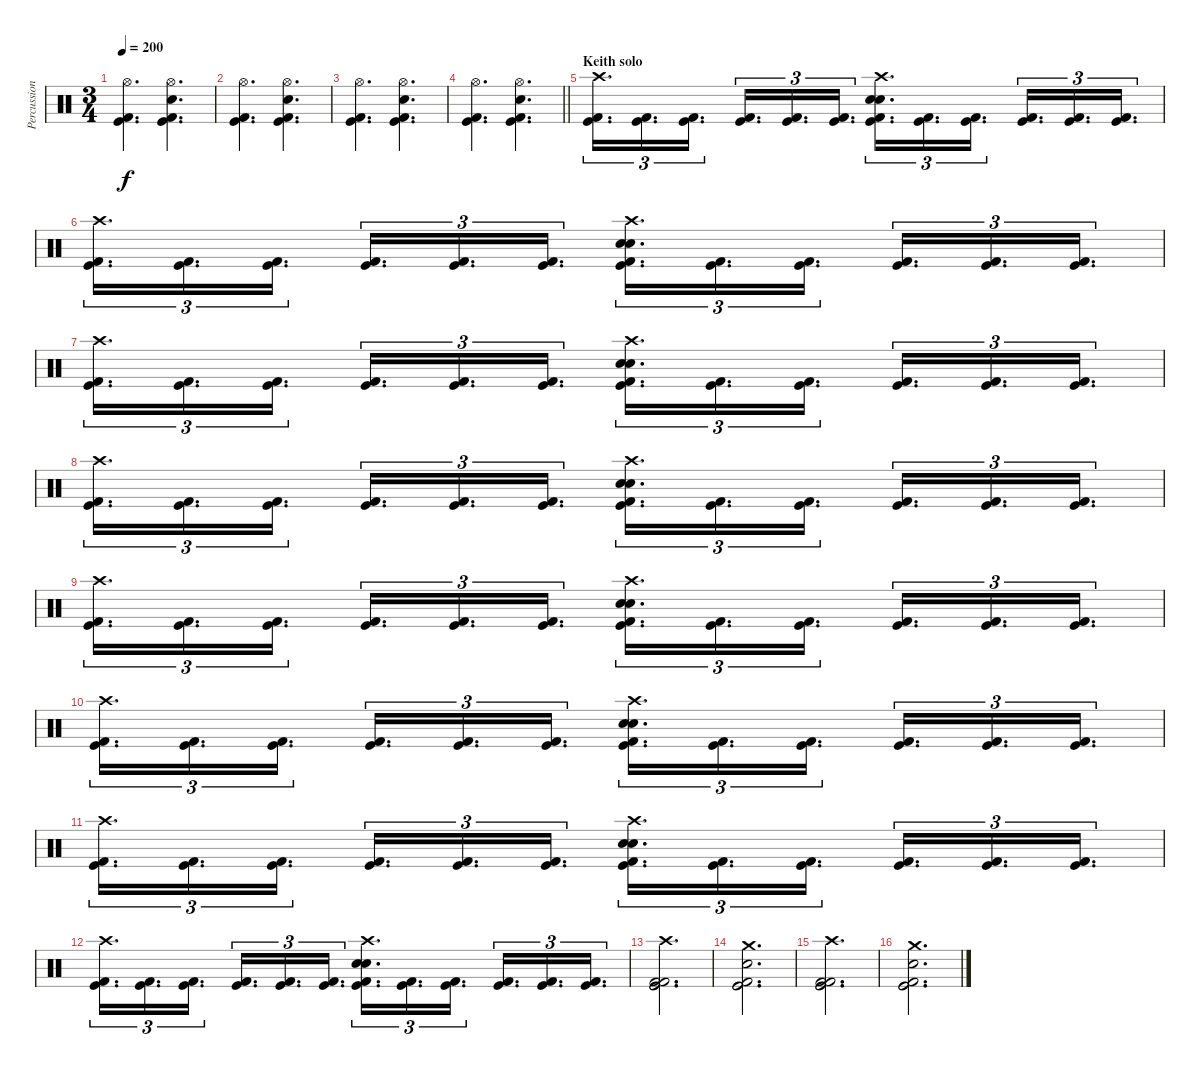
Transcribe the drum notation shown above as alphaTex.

\track ("Percussion" "Percussion") {instrument percussion}
\staff {score}
\articulation defaults
\ts (3 4)
\tempo 200
\clef neutral
\ks c
("Hi-Hat (open)" "Kick (hit) 2" "Kick (hit)").4{d dy f} ("Hi-Hat (open)" "Electric Snare (hit)" "Kick (hit) 2" "Kick (hit)").4{d} |
("Hi-Hat (open)" "Kick (hit) 2" "Kick (hit)").4{d} ("Hi-Hat (open)" "Electric Snare (hit)" "Kick (hit) 2" "Kick (hit)").4{d} |
("Hi-Hat (open)" "Kick (hit) 2" "Kick (hit)").4{d} ("Hi-Hat (open)" "Electric Snare (hit)" "Kick (hit) 2" "Kick (hit)").4{d} |
\barLineRight lightlight
("Hi-Hat (open)" "Kick (hit) 2" "Kick (hit)").4{d} ("Hi-Hat (open)" "Electric Snare (hit)" "Kick (hit) 2" "Kick (hit)").4{d} |
\section ("" "Keith solo")
("Crash high (hit)" "Kick (hit) 2" "Kick (hit)").16{d tu (3 2)} ("Kick (hit) 2" "Kick (hit)").16{d tu (3 2)} ("Kick (hit) 2" "Kick (hit)").16{d tu (3 2)} ("Kick (hit) 2" "Kick (hit)").16{d tu (3 2)} ("Kick (hit) 2" "Kick (hit)").16{d tu (3 2)} ("Kick (hit) 2" "Kick (hit)").16{d tu (3 2)} ("Crash high (hit)" "Electric Snare (hit)" "Electric Snare (hit)" "Kick (hit) 2" "Kick (hit)").16{d tu (3 2)} ("Kick (hit) 2" "Kick (hit)").16{d tu (3 2)} ("Kick (hit) 2" "Kick (hit)").16{d tu (3 2)} ("Kick (hit) 2" "Kick (hit)").16{d tu (3 2)} ("Kick (hit) 2" "Kick (hit)").16{d tu (3 2)} ("Kick (hit) 2" "Kick (hit)").16{d tu (3 2)} |
("Crash high (hit)" "Kick (hit) 2" "Kick (hit)").16{d tu (3 2)} ("Kick (hit) 2" "Kick (hit)").16{d tu (3 2)} ("Kick (hit) 2" "Kick (hit)").16{d tu (3 2)} ("Kick (hit) 2" "Kick (hit)").16{d tu (3 2)} ("Kick (hit) 2" "Kick (hit)").16{d tu (3 2)} ("Kick (hit) 2" "Kick (hit)").16{d tu (3 2)} ("Crash high (hit)" "Electric Snare (hit)" "Electric Snare (hit)" "Kick (hit) 2" "Kick (hit)").16{d tu (3 2)} ("Kick (hit) 2" "Kick (hit)").16{d tu (3 2)} ("Kick (hit) 2" "Kick (hit)").16{d tu (3 2)} ("Kick (hit) 2" "Kick (hit)").16{d tu (3 2)} ("Kick (hit) 2" "Kick (hit)").16{d tu (3 2)} ("Kick (hit) 2" "Kick (hit)").16{d tu (3 2)} |
("Crash high (hit)" "Kick (hit) 2" "Kick (hit)").16{d tu (3 2)} ("Kick (hit) 2" "Kick (hit)").16{d tu (3 2)} ("Kick (hit) 2" "Kick (hit)").16{d tu (3 2)} ("Kick (hit) 2" "Kick (hit)").16{d tu (3 2)} ("Kick (hit) 2" "Kick (hit)").16{d tu (3 2)} ("Kick (hit) 2" "Kick (hit)").16{d tu (3 2)} ("Crash high (hit)" "Electric Snare (hit)" "Electric Snare (hit)" "Kick (hit) 2" "Kick (hit)").16{d tu (3 2)} ("Kick (hit) 2" "Kick (hit)").16{d tu (3 2)} ("Kick (hit) 2" "Kick (hit)").16{d tu (3 2)} ("Kick (hit) 2" "Kick (hit)").16{d tu (3 2)} ("Kick (hit) 2" "Kick (hit)").16{d tu (3 2)} ("Kick (hit) 2" "Kick (hit)").16{d tu (3 2)} |
("Crash high (hit)" "Kick (hit) 2" "Kick (hit)").16{d tu (3 2)} ("Kick (hit) 2" "Kick (hit)").16{d tu (3 2)} ("Kick (hit) 2" "Kick (hit)").16{d tu (3 2)} ("Kick (hit) 2" "Kick (hit)").16{d tu (3 2)} ("Kick (hit) 2" "Kick (hit)").16{d tu (3 2)} ("Kick (hit) 2" "Kick (hit)").16{d tu (3 2)} ("Crash high (hit)" "Electric Snare (hit)" "Electric Snare (hit)" "Kick (hit) 2" "Kick (hit)").16{d tu (3 2)} ("Kick (hit) 2" "Kick (hit)").16{d tu (3 2)} ("Kick (hit) 2" "Kick (hit)").16{d tu (3 2)} ("Kick (hit) 2" "Kick (hit)").16{d tu (3 2)} ("Kick (hit) 2" "Kick (hit)").16{d tu (3 2)} ("Kick (hit) 2" "Kick (hit)").16{d tu (3 2)} |
("Crash high (hit)" "Kick (hit) 2" "Kick (hit)").16{d tu (3 2)} ("Kick (hit) 2" "Kick (hit)").16{d tu (3 2)} ("Kick (hit) 2" "Kick (hit)").16{d tu (3 2)} ("Kick (hit) 2" "Kick (hit)").16{d tu (3 2)} ("Kick (hit) 2" "Kick (hit)").16{d tu (3 2)} ("Kick (hit) 2" "Kick (hit)").16{d tu (3 2)} ("Crash high (hit)" "Electric Snare (hit)" "Electric Snare (hit)" "Kick (hit) 2" "Kick (hit)").16{d tu (3 2)} ("Kick (hit) 2" "Kick (hit)").16{d tu (3 2)} ("Kick (hit) 2" "Kick (hit)").16{d tu (3 2)} ("Kick (hit) 2" "Kick (hit)").16{d tu (3 2)} ("Kick (hit) 2" "Kick (hit)").16{d tu (3 2)} ("Kick (hit) 2" "Kick (hit)").16{d tu (3 2)} |
("Crash high (hit)" "Kick (hit) 2" "Kick (hit)").16{d tu (3 2)} ("Kick (hit) 2" "Kick (hit)").16{d tu (3 2)} ("Kick (hit) 2" "Kick (hit)").16{d tu (3 2)} ("Kick (hit) 2" "Kick (hit)").16{d tu (3 2)} ("Kick (hit) 2" "Kick (hit)").16{d tu (3 2)} ("Kick (hit) 2" "Kick (hit)").16{d tu (3 2)} ("Crash high (hit)" "Electric Snare (hit)" "Electric Snare (hit)" "Kick (hit) 2" "Kick (hit)").16{d tu (3 2)} ("Kick (hit) 2" "Kick (hit)").16{d tu (3 2)} ("Kick (hit) 2" "Kick (hit)").16{d tu (3 2)} ("Kick (hit) 2" "Kick (hit)").16{d tu (3 2)} ("Kick (hit) 2" "Kick (hit)").16{d tu (3 2)} ("Kick (hit) 2" "Kick (hit)").16{d tu (3 2)} |
("Crash high (hit)" "Kick (hit) 2" "Kick (hit)").16{d tu (3 2)} ("Kick (hit) 2" "Kick (hit)").16{d tu (3 2)} ("Kick (hit) 2" "Kick (hit)").16{d tu (3 2)} ("Kick (hit) 2" "Kick (hit)").16{d tu (3 2)} ("Kick (hit) 2" "Kick (hit)").16{d tu (3 2)} ("Kick (hit) 2" "Kick (hit)").16{d tu (3 2)} ("Crash high (hit)" "Electric Snare (hit)" "Electric Snare (hit)" "Kick (hit) 2" "Kick (hit)").16{d tu (3 2)} ("Kick (hit) 2" "Kick (hit)").16{d tu (3 2)} ("Kick (hit) 2" "Kick (hit)").16{d tu (3 2)} ("Kick (hit) 2" "Kick (hit)").16{d tu (3 2)} ("Kick (hit) 2" "Kick (hit)").16{d tu (3 2)} ("Kick (hit) 2" "Kick (hit)").16{d tu (3 2)} |
("Crash high (hit)" "Kick (hit) 2" "Kick (hit)").16{d tu (3 2)} ("Kick (hit) 2" "Kick (hit)").16{d tu (3 2)} ("Kick (hit) 2" "Kick (hit)").16{d tu (3 2)} ("Kick (hit) 2" "Kick (hit)").16{d tu (3 2)} ("Kick (hit) 2" "Kick (hit)").16{d tu (3 2)} ("Kick (hit) 2" "Kick (hit)").16{d tu (3 2)} ("Crash high (hit)" "Electric Snare (hit)" "Electric Snare (hit)" "Kick (hit) 2" "Kick (hit)").16{d tu (3 2)} ("Kick (hit) 2" "Kick (hit)").16{d tu (3 2)} ("Kick (hit) 2" "Kick (hit)").16{d tu (3 2)} ("Kick (hit) 2" "Kick (hit)").16{d tu (3 2)} ("Kick (hit) 2" "Kick (hit)").16{d tu (3 2)} ("Kick (hit) 2" "Kick (hit)").16{d tu (3 2)} |
("Crash high (hit)" "Kick (hit) 2" "Kick (hit)" "Kick (hit) 2" "Kick (hit)").2{d} |
("Electric Snare (hit)" "Crash medium (hit)" "Kick (hit)" "Kick (hit) 2" "Kick (hit)").2{d} |
("Crash high (hit)" "Kick (hit) 2" "Kick (hit)" "Kick (hit) 2" "Kick (hit)").2{d} |
("Electric Snare (hit)" "Crash medium (hit)" "Kick (hit)" "Kick (hit) 2" "Kick (hit)").2{d}
